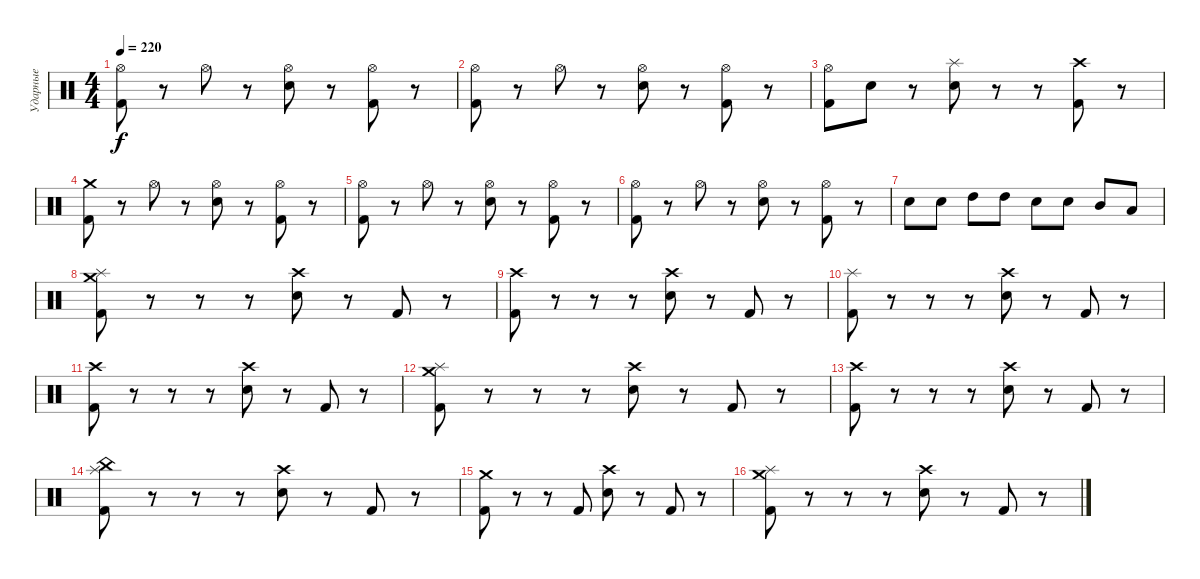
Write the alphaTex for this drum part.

\track ("Ударные" "Ударные") {instrument percussion}
\staff {score}
\articulation defaults
\ts (4 4)
\tempo 220
\clef neutral
\ks c
("Kick (hit) 2" "Hi-Hat (open)").8{dy f} r.8 "Hi-Hat (open)".8 r.8 ("Electric Snare (hit)" "Hi-Hat (open)").8 r.8 ("Kick (hit) 2" "Hi-Hat (open)").8 r.8 |
("Kick (hit) 2" "Hi-Hat (open)").8 r.8 "Hi-Hat (open)".8 r.8 ("Electric Snare (hit)" "Hi-Hat (open)").8 r.8 ("Kick (hit) 2" "Hi-Hat (open)").8 r.8 |
("Kick (hit) 2" "Hi-Hat (open)").8 "Electric Snare (hit)".8 r.8 ("Electric Snare (hit)" "Splash (hit)").8 r.8 r.8 ("Kick (hit) 2" "Crash high (hit)").8 r.8 |
("Kick (hit) 2" "Crash medium (hit)").8 r.8 "Hi-Hat (open)".8 r.8 ("Electric Snare (hit)" "Hi-Hat (open)").8 r.8 ("Kick (hit) 2" "Hi-Hat (open)").8 r.8 |
("Kick (hit) 2" "Hi-Hat (open)").8 r.8 "Hi-Hat (open)".8 r.8 ("Electric Snare (hit)" "Hi-Hat (open)").8 r.8 ("Kick (hit) 2" "Hi-Hat (open)").8 r.8 |
("Kick (hit) 2" "Hi-Hat (open)").8 r.8 "Hi-Hat (open)".8 r.8 ("Electric Snare (hit)" "Hi-Hat (open)").8 r.8 ("Kick (hit) 2" "Hi-Hat (open)").8 r.8 |
"Electric Snare (hit)".8 "Electric Snare (hit)".8 "High Tom (hit)".8 "High Tom (hit)".8 "Electric Snare (hit)".8 "Electric Snare (hit)".8 "Mid Tom (hit)".8 "Low Tom (hit)".8 |
("Kick (hit) 2" "Splash (hit)" "Crash medium (hit)").8 r.8 r.8 r.8 ("Electric Snare (hit)" "Crash high (hit)").8 r.8 "Kick (hit) 2".8 r.8 |
("Kick (hit) 2" "Crash high (hit)").8 r.8 r.8 r.8 ("Electric Snare (hit)" "Crash high (hit)").8 r.8 "Kick (hit) 2".8 r.8 |
("Kick (hit) 2" "Splash (hit)").8 r.8 r.8 r.8 ("Electric Snare (hit)" "Crash high (hit)").8 r.8 "Kick (hit) 2".8 r.8 |
("Kick (hit) 2" "Crash high (hit)").8 r.8 r.8 r.8 ("Electric Snare (hit)" "Crash high (hit)").8 r.8 "Kick (hit) 2".8 r.8 |
("Kick (hit) 2" "Splash (hit)" "Crash medium (hit)").8 r.8 r.8 r.8 ("Electric Snare (hit)" "Crash high (hit)").8 r.8 "Kick (hit) 2".8 r.8 |
("Kick (hit) 2" "Crash high (hit)").8 r.8 r.8 r.8 ("Electric Snare (hit)" "Crash high (hit)").8 r.8 "Kick (hit) 2".8 r.8 |
("Kick (hit) 2" "China (hit)" "Splash (hit)").8 r.8 r.8 r.8 ("Electric Snare (hit)" "Crash high (hit)").8 r.8 "Kick (hit) 2".8 r.8 |
("Kick (hit) 2" "Crash medium (hit)").8 r.8 r.8 "Kick (hit) 2".8 ("Electric Snare (hit)" "Crash high (hit)").8 r.8 "Kick (hit) 2".8 r.8 |
("Kick (hit) 2" "Splash (hit)" "Crash medium (hit)").8 r.8 r.8 r.8 ("Electric Snare (hit)" "Crash high (hit)").8 r.8 "Kick (hit) 2".8 r.8
